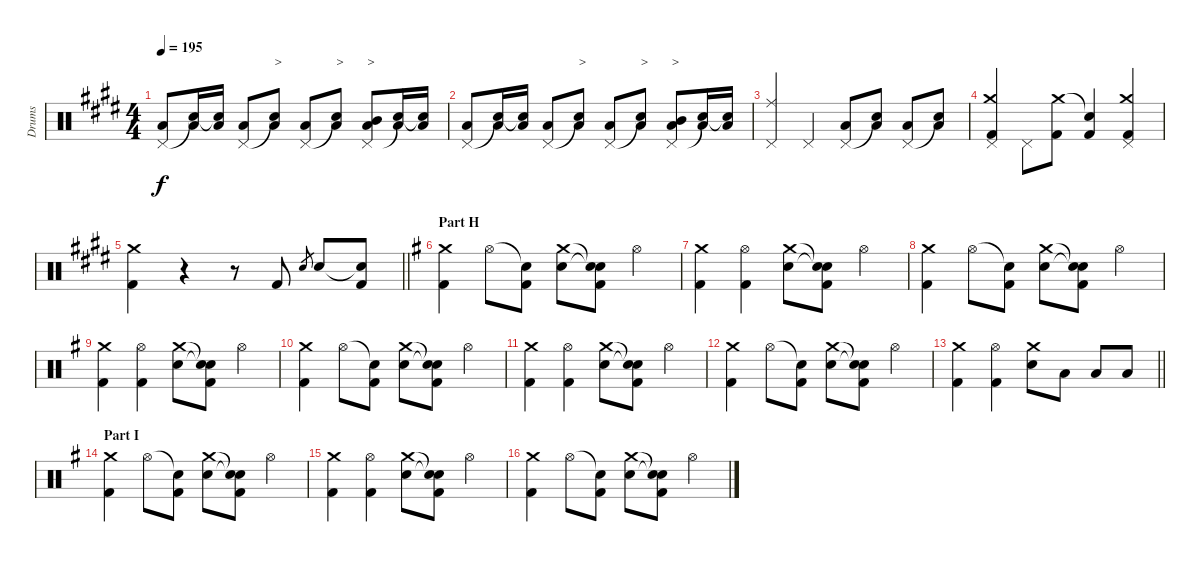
\track ("Drums" "Drums") {instrument percussion}
\staff {score}
\articulation defaults
\ts (4 4)
\tempo 195
\clef neutral
\ks e
("Pedal Hi-Hat (hit)" "Low Floor Tom (hit)").8{dy f} ("Snare (hit)"{t} "Low Floor Tom (hit)").16 ("Snare (hit)"{t} "Low Floor Tom (hit)").16 ("Pedal Hi-Hat (hit)" "Low Floor Tom (hit)").8 ("Snare (hit)"{t} "Low Floor Tom (hit)").8{txt ">"} ("Pedal Hi-Hat (hit)" "Low Floor Tom (hit)").8 ("Snare (hit)"{t} "Low Floor Tom (hit)").8{txt ">"} ("Pedal Hi-Hat (hit)" "Mid Tom (hit)" "Low Floor Tom (hit)").8{txt ">"} ("Snare (hit)"{t} "Low Floor Tom (hit)").16 ("Snare (hit)"{t} "Low Floor Tom (hit)").16 |
("Pedal Hi-Hat (hit)" "Low Floor Tom (hit)").8 ("Snare (hit)"{t} "Low Floor Tom (hit)").16 ("Snare (hit)"{t} "Low Floor Tom (hit)").16 ("Pedal Hi-Hat (hit)" "Low Floor Tom (hit)").8 ("Snare (hit)"{t} "Low Floor Tom (hit)").8{txt ">"} ("Pedal Hi-Hat (hit)" "Low Floor Tom (hit)").8 ("Snare (hit)"{t} "Low Floor Tom (hit)").8{txt ">"} ("Pedal Hi-Hat (hit)" "Mid Tom (hit)" "Low Floor Tom (hit)").8{txt ">"} ("Snare (hit)"{t} "Low Floor Tom (hit)").16 ("Snare (hit)"{t} "Low Floor Tom (hit)").16 |
("Ride (middle)" "Pedal Hi-Hat (hit)").4 "Pedal Hi-Hat (hit)".4 ("Pedal Hi-Hat (hit)" "Low Floor Tom (hit)").8 ("Snare (hit)"{t} "Low Floor Tom (hit)").8 ("Pedal Hi-Hat (hit)" "Low Floor Tom (hit)").8 ("Snare (hit)"{t} "Low Floor Tom (hit)").8 |
("Crash medium (hit)" "Pedal Hi-Hat (hit)" "Kick (hit) 2").4 "Pedal Hi-Hat (hit)".8 ("Crash medium (hit)" "Kick (hit) 2").8 ("Snare (hit)"{t} "Kick (hit) 2").4 ("Crash medium (hit)" "Pedal Hi-Hat (hit)" "Kick (hit) 2").4 |
\barLineRight lightlight
("Crash medium (hit)" "Kick (hit) 2").4 r.4 r.8 "Kick (hit) 2".8 "Electric Snare (hit)".8{gr} "Electric Snare (hit)".8 ("Snare (hit)"{t} "Kick (hit) 2").8 |
\section ("" "Part H")
\ks g
("Crash medium (hit)" "Kick (hit) 2").4 "Hi-Hat (open)".8 ("Snare (hit)"{t} "Kick (hit) 2").8 ("Crash medium (hit)" "Electric Snare (hit)").8 ("Snare (hit)"{t} "Snare (hit)"{t} "Kick (hit) 2").8 "Hi-Hat (open)".4 |
("Crash medium (hit)" "Kick (hit) 2").4 ("Hi-Hat (open)" "Kick (hit) 2").4 ("Crash medium (hit)" "Electric Snare (hit)").8 ("Snare (hit)"{t} "Snare (hit)"{t} "Kick (hit) 2").8 "Hi-Hat (open)".4 |
("Crash medium (hit)" "Kick (hit) 2").4 "Hi-Hat (open)".8 ("Snare (hit)"{t} "Kick (hit) 2").8 ("Crash medium (hit)" "Electric Snare (hit)").8 ("Snare (hit)"{t} "Snare (hit)"{t} "Kick (hit) 2").8 "Hi-Hat (open)".4 |
("Crash medium (hit)" "Kick (hit) 2").4 ("Hi-Hat (open)" "Kick (hit) 2").4 ("Crash medium (hit)" "Electric Snare (hit)").8 ("Snare (hit)"{t} "Snare (hit)"{t} "Kick (hit) 2").8 "Hi-Hat (open)".4 |
("Crash medium (hit)" "Kick (hit) 2").4 "Hi-Hat (open)".8 ("Snare (hit)"{t} "Kick (hit) 2").8 ("Crash medium (hit)" "Electric Snare (hit)").8 ("Snare (hit)"{t} "Snare (hit)"{t} "Kick (hit) 2").8 "Hi-Hat (open)".4 |
("Crash medium (hit)" "Kick (hit) 2").4 ("Hi-Hat (open)" "Kick (hit) 2").4 ("Crash medium (hit)" "Electric Snare (hit)").8 ("Snare (hit)"{t} "Snare (hit)"{t} "Kick (hit) 2").8 "Hi-Hat (open)".4 |
("Crash medium (hit)" "Kick (hit) 2").4 "Hi-Hat (open)".8 ("Snare (hit)"{t} "Kick (hit) 2").8 ("Crash medium (hit)" "Electric Snare (hit)").8 ("Snare (hit)"{t} "Snare (hit)"{t} "Kick (hit) 2").8 "Hi-Hat (open)".4 |
\barLineRight lightlight
("Crash medium (hit)" "Kick (hit) 2").4 ("Hi-Hat (open)" "Kick (hit) 2").4 ("Crash medium (hit)" "Electric Snare (hit)").8 "Low Floor Tom (hit)".8 "Low Floor Tom (hit)".8 "Low Floor Tom (hit)".8 |
\section ("" "Part I")
("Crash medium (hit)" "Kick (hit) 2").4 "Hi-Hat (open)".8 ("Snare (hit)"{t} "Kick (hit) 2").8 ("Crash medium (hit)" "Electric Snare (hit)").8 ("Snare (hit)"{t} "Snare (hit)"{t} "Kick (hit) 2").8 "Hi-Hat (open)".4 |
("Crash medium (hit)" "Kick (hit) 2").4 ("Hi-Hat (open)" "Kick (hit) 2").4 ("Crash medium (hit)" "Electric Snare (hit)").8 ("Snare (hit)"{t} "Snare (hit)"{t} "Kick (hit) 2").8 "Hi-Hat (open)".4 |
("Crash medium (hit)" "Kick (hit) 2").4 "Hi-Hat (open)".8 ("Snare (hit)"{t} "Kick (hit) 2").8 ("Crash medium (hit)" "Electric Snare (hit)").8 ("Snare (hit)"{t} "Snare (hit)"{t} "Kick (hit) 2").8 "Hi-Hat (open)".4
